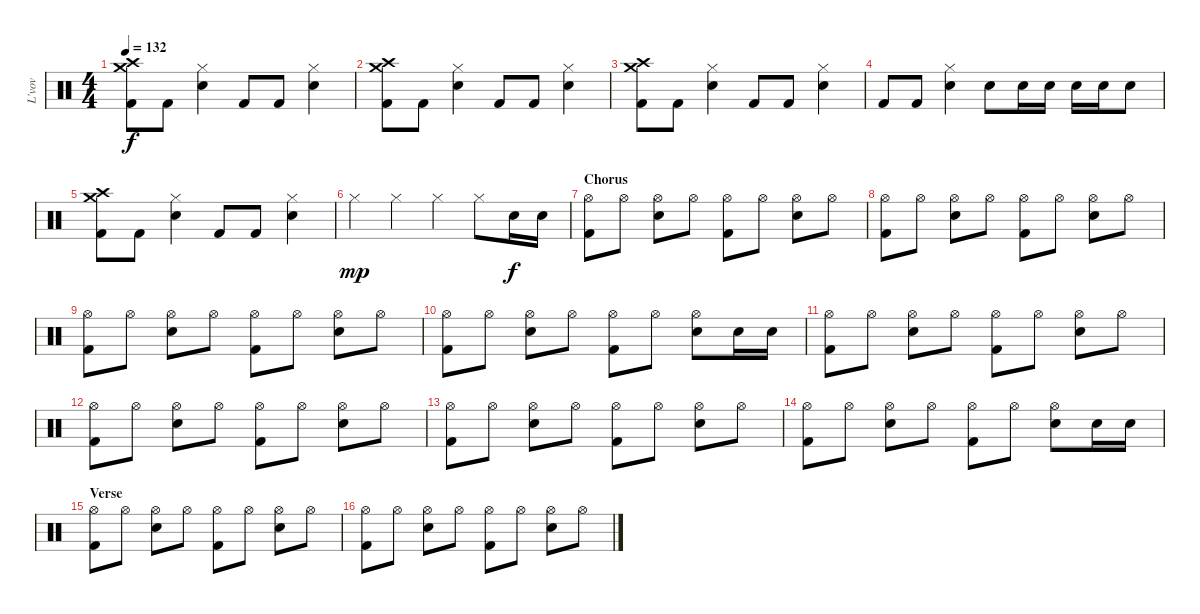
\track ("L'vov" "L'vov") {instrument percussion}
\staff {score}
\articulation defaults
\ts (4 4)
\tempo 132
\clef neutral
\ks c
("Kick (hit) 2" "Crash high (hit)" "Crash medium (hit)").8{dy f} "Kick (hit) 2".8 ("Snare (hit) 2" "Hi-Hat (closed)").4 "Kick (hit) 2".8 "Kick (hit) 2".8 ("Snare (hit) 2" "Hi-Hat (closed)").4 |
("Kick (hit) 2" "Crash high (hit)" "Crash medium (hit)").8 "Kick (hit) 2".8 ("Snare (hit) 2" "Hi-Hat (closed)").4 "Kick (hit) 2".8 "Kick (hit) 2".8 ("Snare (hit) 2" "Hi-Hat (closed)").4 |
("Kick (hit) 2" "Crash high (hit)" "Crash medium (hit)").8 "Kick (hit) 2".8 ("Snare (hit) 2" "Hi-Hat (closed)").4 "Kick (hit) 2".8 "Kick (hit) 2".8 ("Snare (hit) 2" "Hi-Hat (closed)").4 |
"Kick (hit) 2".8 "Kick (hit) 2".8 ("Snare (hit) 2" "Hi-Hat (closed)").4 "Snare (hit) 2".8 "Snare (hit) 2".16 "Snare (hit) 2".16 "Snare (hit) 2".16 "Snare (hit) 2".16 "Snare (hit) 2".8 |
("Kick (hit) 2" "Crash high (hit)" "Crash medium (hit)").8 "Kick (hit) 2".8 ("Snare (hit) 2" "Hi-Hat (closed)").4 "Kick (hit) 2".8 "Kick (hit) 2".8 ("Snare (hit) 2" "Hi-Hat (closed)").4 |
"Hi-Hat (closed)".4{dy mp} "Hi-Hat (closed)".4 "Hi-Hat (closed)".4 "Hi-Hat (closed)".8 "Snare (hit) 2".16{dy f} "Snare (hit) 2".16 |
\section ("" "Chorus")
("Hi-Hat (open)" "Kick (hit) 2").8 "Hi-Hat (open)".8 ("Hi-Hat (open)" "Snare (hit) 2").8 "Hi-Hat (open)".8 ("Hi-Hat (open)" "Kick (hit) 2").8 "Hi-Hat (open)".8 ("Hi-Hat (open)" "Snare (hit) 2").8 "Hi-Hat (open)".8 |
("Hi-Hat (open)" "Kick (hit) 2").8 "Hi-Hat (open)".8 ("Hi-Hat (open)" "Snare (hit) 2").8 "Hi-Hat (open)".8 ("Hi-Hat (open)" "Kick (hit) 2").8 "Hi-Hat (open)".8 ("Hi-Hat (open)" "Snare (hit) 2").8 "Hi-Hat (open)".8 |
("Hi-Hat (open)" "Kick (hit) 2").8 "Hi-Hat (open)".8 ("Hi-Hat (open)" "Snare (hit) 2").8 "Hi-Hat (open)".8 ("Hi-Hat (open)" "Kick (hit) 2").8 "Hi-Hat (open)".8 ("Hi-Hat (open)" "Snare (hit) 2").8 "Hi-Hat (open)".8 |
("Hi-Hat (open)" "Kick (hit) 2").8 "Hi-Hat (open)".8 ("Hi-Hat (open)" "Snare (hit) 2").8 "Hi-Hat (open)".8 ("Hi-Hat (open)" "Kick (hit) 2").8 "Hi-Hat (open)".8 ("Hi-Hat (open)" "Snare (hit) 2").8 "Snare (hit) 2".16 "Snare (hit) 2".16 |
("Hi-Hat (open)" "Kick (hit) 2").8 "Hi-Hat (open)".8 ("Hi-Hat (open)" "Snare (hit) 2").8 "Hi-Hat (open)".8 ("Hi-Hat (open)" "Kick (hit) 2").8 "Hi-Hat (open)".8 ("Hi-Hat (open)" "Snare (hit) 2").8 "Hi-Hat (open)".8 |
("Hi-Hat (open)" "Kick (hit) 2").8 "Hi-Hat (open)".8 ("Hi-Hat (open)" "Snare (hit) 2").8 "Hi-Hat (open)".8 ("Hi-Hat (open)" "Kick (hit) 2").8 "Hi-Hat (open)".8 ("Hi-Hat (open)" "Snare (hit) 2").8 "Hi-Hat (open)".8 |
("Hi-Hat (open)" "Kick (hit) 2").8 "Hi-Hat (open)".8 ("Hi-Hat (open)" "Snare (hit) 2").8 "Hi-Hat (open)".8 ("Hi-Hat (open)" "Kick (hit) 2").8 "Hi-Hat (open)".8 ("Hi-Hat (open)" "Snare (hit) 2").8 "Hi-Hat (open)".8 |
("Hi-Hat (open)" "Kick (hit) 2").8 "Hi-Hat (open)".8 ("Hi-Hat (open)" "Snare (hit) 2").8 "Hi-Hat (open)".8 ("Hi-Hat (open)" "Kick (hit) 2").8 "Hi-Hat (open)".8 ("Hi-Hat (open)" "Snare (hit) 2").8 "Snare (hit) 2".16 "Snare (hit) 2".16 |
\section ("" "Verse")
("Hi-Hat (open)" "Kick (hit) 2").8 "Hi-Hat (open)".8 ("Hi-Hat (open)" "Snare (hit) 2").8 "Hi-Hat (open)".8 ("Hi-Hat (open)" "Kick (hit) 2").8 "Hi-Hat (open)".8 ("Hi-Hat (open)" "Snare (hit) 2").8 "Hi-Hat (open)".8 |
("Hi-Hat (open)" "Kick (hit) 2").8 "Hi-Hat (open)".8 ("Hi-Hat (open)" "Snare (hit) 2").8 "Hi-Hat (open)".8 ("Hi-Hat (open)" "Kick (hit) 2").8 "Hi-Hat (open)".8 ("Hi-Hat (open)" "Snare (hit) 2").8 "Hi-Hat (open)".8
